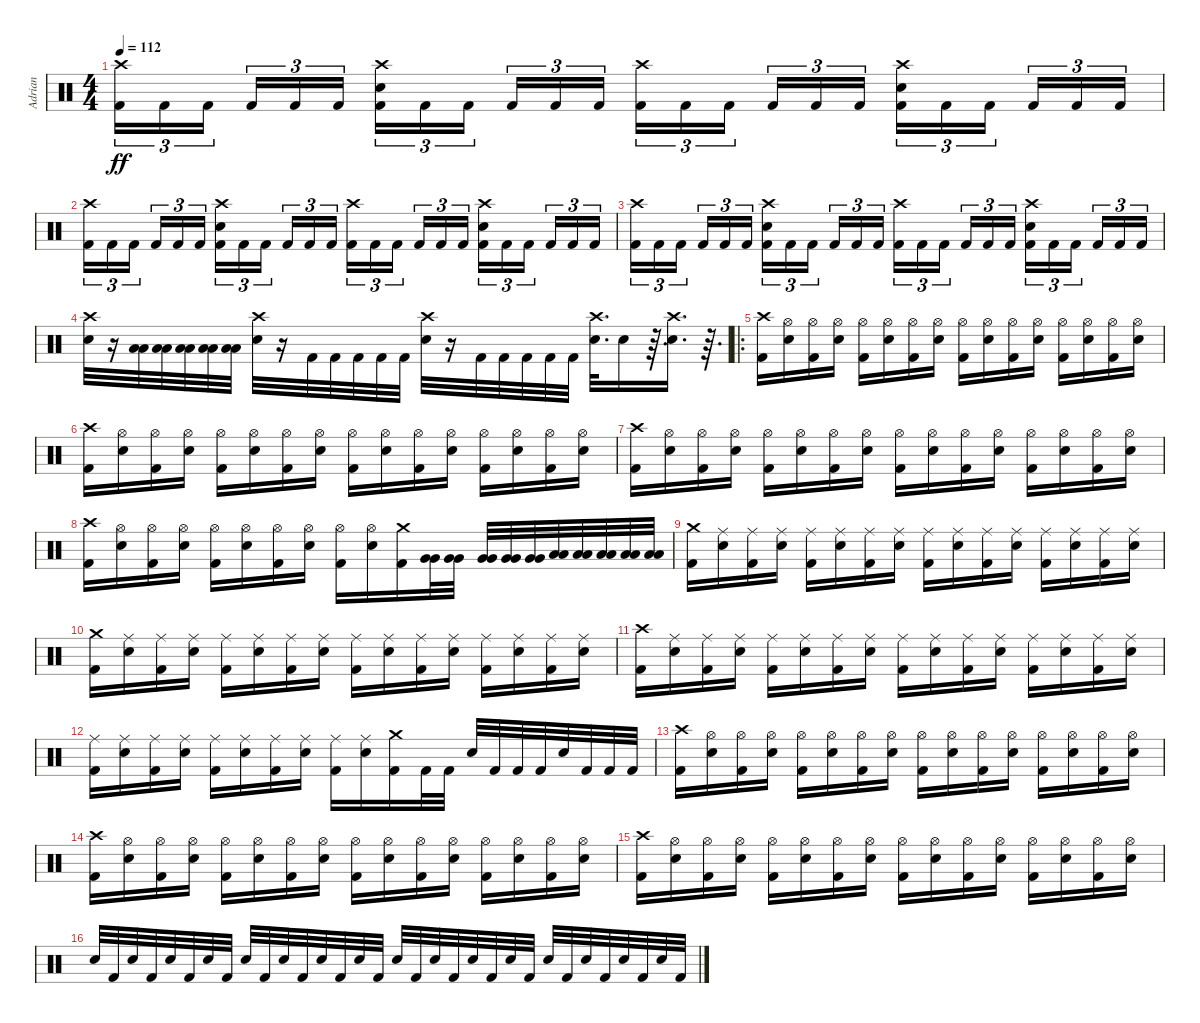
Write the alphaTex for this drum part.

\track ("Adrian" "Adrian") {instrument percussion}
\staff {score}
\articulation defaults
\ts (4 4)
\tempo 112
\clef neutral
\ks c
("Crash high (hit)" "Kick (hit) 2").16{tu (3 2) dy ff} "Kick (hit) 2".16{tu (3 2)} "Kick (hit) 2".16{tu (3 2) beam splitsecondary} "Kick (hit) 2".16{tu (3 2)} "Kick (hit) 2".16{tu (3 2)} "Kick (hit) 2".16{tu (3 2)} ("Crash high (hit)" "Electric Snare (hit)" "Kick (hit) 2").16{tu (3 2)} "Kick (hit) 2".16{tu (3 2)} "Kick (hit) 2".16{tu (3 2) beam splitsecondary} "Kick (hit) 2".16{tu (3 2)} "Kick (hit) 2".16{tu (3 2)} "Kick (hit) 2".16{tu (3 2)} ("Crash high (hit)" "Kick (hit) 2").16{tu (3 2)} "Kick (hit) 2".16{tu (3 2)} "Kick (hit) 2".16{tu (3 2) beam splitsecondary} "Kick (hit) 2".16{tu (3 2)} "Kick (hit) 2".16{tu (3 2)} "Kick (hit) 2".16{tu (3 2)} ("Crash high (hit)" "Electric Snare (hit)" "Kick (hit) 2").16{tu (3 2)} "Kick (hit) 2".16{tu (3 2)} "Kick (hit) 2".16{tu (3 2) beam splitsecondary} "Kick (hit) 2".16{tu (3 2)} "Kick (hit) 2".16{tu (3 2)} "Kick (hit) 2".16{tu (3 2)} |
("Crash high (hit)" "Kick (hit) 2").16{tu (3 2)} "Kick (hit) 2".16{tu (3 2)} "Kick (hit) 2".16{tu (3 2) beam splitsecondary} "Kick (hit) 2".16{tu (3 2)} "Kick (hit) 2".16{tu (3 2)} "Kick (hit) 2".16{tu (3 2)} ("Crash high (hit)" "Electric Snare (hit)" "Kick (hit) 2").16{tu (3 2)} "Kick (hit) 2".16{tu (3 2)} "Kick (hit) 2".16{tu (3 2) beam splitsecondary} "Kick (hit) 2".16{tu (3 2)} "Kick (hit) 2".16{tu (3 2)} "Kick (hit) 2".16{tu (3 2)} ("Crash high (hit)" "Kick (hit) 2").16{tu (3 2)} "Kick (hit) 2".16{tu (3 2)} "Kick (hit) 2".16{tu (3 2) beam splitsecondary} "Kick (hit) 2".16{tu (3 2)} "Kick (hit) 2".16{tu (3 2)} "Kick (hit) 2".16{tu (3 2)} ("Crash high (hit)" "Electric Snare (hit)" "Kick (hit) 2").16{tu (3 2)} "Kick (hit) 2".16{tu (3 2)} "Kick (hit) 2".16{tu (3 2) beam splitsecondary} "Kick (hit) 2".16{tu (3 2)} "Kick (hit) 2".16{tu (3 2)} "Kick (hit) 2".16{tu (3 2)} |
("Crash high (hit)" "Kick (hit) 2").16{tu (3 2)} "Kick (hit) 2".16{tu (3 2)} "Kick (hit) 2".16{tu (3 2) beam splitsecondary} "Kick (hit) 2".16{tu (3 2)} "Kick (hit) 2".16{tu (3 2)} "Kick (hit) 2".16{tu (3 2)} ("Crash high (hit)" "Electric Snare (hit)" "Kick (hit) 2").16{tu (3 2)} "Kick (hit) 2".16{tu (3 2)} "Kick (hit) 2".16{tu (3 2) beam splitsecondary} "Kick (hit) 2".16{tu (3 2)} "Kick (hit) 2".16{tu (3 2)} "Kick (hit) 2".16{tu (3 2)} ("Crash high (hit)" "Kick (hit) 2").16{tu (3 2)} "Kick (hit) 2".16{tu (3 2)} "Kick (hit) 2".16{tu (3 2) beam splitsecondary} "Kick (hit) 2".16{tu (3 2)} "Kick (hit) 2".16{tu (3 2)} "Kick (hit) 2".16{tu (3 2)} ("Crash high (hit)" "Electric Snare (hit)" "Kick (hit) 2").16{tu (3 2)} "Kick (hit) 2".16{tu (3 2)} "Kick (hit) 2".16{tu (3 2) beam splitsecondary} "Kick (hit) 2".16{tu (3 2)} "Kick (hit) 2".16{tu (3 2)} "Kick (hit) 2".16{tu (3 2)} |
("Crash high (hit)" "Electric Snare (hit)").32 r.16 ("Low Floor Tom (hit)" "Low Floor Tom (hit)").32 ("Low Floor Tom (hit)" "Low Floor Tom (hit)").32 ("Low Floor Tom (hit)" "Low Floor Tom (hit)").32 ("Low Floor Tom (hit)" "Low Floor Tom (hit)").32 ("Low Floor Tom (hit)" "Low Floor Tom (hit)").32 ("Crash high (hit)" "Electric Snare (hit)").32 r.16 "Kick (hit) 2".32 "Kick (hit) 2".32 "Kick (hit) 2".32 "Kick (hit) 2".32 "Kick (hit) 2".32 ("Crash high (hit)" "Electric Snare (hit)").32 r.16 "Kick (hit) 2".32 "Kick (hit) 2".32 "Kick (hit) 2".32 "Kick (hit) 2".32 "Kick (hit) 2".32 ("Crash high (hit)" "Electric Snare (hit)").32{d} "Electric Snare (hit)".16 r.64{d} ("Crash high (hit)" "Electric Snare (hit)").16{d} r.64{d} |
\ro
("Crash high (hit)" "Kick (hit) 2").16 ("Hi-Hat (open)" "Electric Snare (hit)").16 ("Hi-Hat (open)" "Kick (hit) 2").16 ("Hi-Hat (open)" "Electric Snare (hit)").16 ("Hi-Hat (open)" "Kick (hit) 2").16 ("Hi-Hat (open)" "Electric Snare (hit)").16 ("Hi-Hat (open)" "Kick (hit) 2").16 ("Hi-Hat (open)" "Electric Snare (hit)").16 ("Hi-Hat (open)" "Kick (hit) 2").16 ("Hi-Hat (open)" "Electric Snare (hit)").16 ("Hi-Hat (open)" "Kick (hit) 2").16 ("Hi-Hat (open)" "Electric Snare (hit)").16 ("Hi-Hat (open)" "Kick (hit) 2").16 ("Hi-Hat (open)" "Electric Snare (hit)").16 ("Hi-Hat (open)" "Kick (hit) 2").16 ("Hi-Hat (open)" "Electric Snare (hit)").16 |
("Crash high (hit)" "Kick (hit) 2").16 ("Hi-Hat (open)" "Electric Snare (hit)").16 ("Hi-Hat (open)" "Kick (hit) 2").16 ("Hi-Hat (open)" "Electric Snare (hit)").16 ("Hi-Hat (open)" "Kick (hit) 2").16 ("Hi-Hat (open)" "Electric Snare (hit)").16 ("Hi-Hat (open)" "Kick (hit) 2").16 ("Hi-Hat (open)" "Electric Snare (hit)").16 ("Hi-Hat (open)" "Kick (hit) 2").16 ("Hi-Hat (open)" "Electric Snare (hit)").16 ("Hi-Hat (open)" "Kick (hit) 2").16 ("Hi-Hat (open)" "Electric Snare (hit)").16 ("Hi-Hat (open)" "Kick (hit) 2").16 ("Hi-Hat (open)" "Electric Snare (hit)").16 ("Hi-Hat (open)" "Kick (hit) 2").16 ("Hi-Hat (open)" "Electric Snare (hit)").16 |
("Crash high (hit)" "Kick (hit) 2").16 ("Hi-Hat (open)" "Electric Snare (hit)").16 ("Hi-Hat (open)" "Kick (hit) 2").16 ("Hi-Hat (open)" "Electric Snare (hit)").16 ("Hi-Hat (open)" "Kick (hit) 2").16 ("Hi-Hat (open)" "Electric Snare (hit)").16 ("Hi-Hat (open)" "Kick (hit) 2").16 ("Hi-Hat (open)" "Electric Snare (hit)").16 ("Hi-Hat (open)" "Kick (hit) 2").16 ("Hi-Hat (open)" "Electric Snare (hit)").16 ("Hi-Hat (open)" "Kick (hit) 2").16 ("Hi-Hat (open)" "Electric Snare (hit)").16 ("Hi-Hat (open)" "Kick (hit) 2").16 ("Hi-Hat (open)" "Electric Snare (hit)").16 ("Hi-Hat (open)" "Kick (hit) 2").16 ("Hi-Hat (open)" "Electric Snare (hit)").16 |
("Crash high (hit)" "Kick (hit) 2").16 ("Hi-Hat (open)" "Electric Snare (hit)").16 ("Hi-Hat (open)" "Kick (hit) 2").16 ("Hi-Hat (open)" "Electric Snare (hit)").16 ("Hi-Hat (open)" "Kick (hit) 2").16 ("Hi-Hat (open)" "Electric Snare (hit)").16 ("Hi-Hat (open)" "Kick (hit) 2").16 ("Hi-Hat (open)" "Electric Snare (hit)").16 ("Hi-Hat (open)" "Kick (hit) 2").16 ("Hi-Hat (open)" "Electric Snare (hit)").16 ("Crash medium (hit)" "Kick (hit) 2").16 ("Very Low Tom (hit)" "Very Low Tom (hit)").32 ("Very Low Tom (hit)" "Very Low Tom (hit)").32 ("Very Low Tom (hit)" "Very Low Tom (hit)").32 ("Very Low Tom (hit)" "Very Low Tom (hit)").32 ("Very Low Tom (hit)" "Very Low Tom (hit)").32 ("Low Floor Tom (hit)" "Low Floor Tom (hit)").32 ("Low Floor Tom (hit)" "Low Floor Tom (hit)").32 ("Low Floor Tom (hit)" "Low Floor Tom (hit)").32 ("Low Floor Tom (hit)" "Low Floor Tom (hit)").32 ("Low Floor Tom (hit)" "Low Floor Tom (hit)").32 |
("Crash medium (hit)" "Kick (hit) 2").16 ("Ride (middle)" "Electric Snare (hit)").16 ("Ride (middle)" "Kick (hit) 2").16 ("Ride (middle)" "Electric Snare (hit)").16 ("Ride (middle)" "Kick (hit) 2").16 ("Ride (middle)" "Electric Snare (hit)").16 ("Ride (middle)" "Kick (hit) 2").16 ("Ride (middle)" "Electric Snare (hit)").16 ("Ride (middle)" "Kick (hit) 2").16 ("Ride (middle)" "Electric Snare (hit)").16 ("Ride (middle)" "Kick (hit) 2").16 ("Ride (middle)" "Electric Snare (hit)").16 ("Ride (middle)" "Kick (hit) 2").16 ("Ride (middle)" "Electric Snare (hit)").16 ("Ride (middle)" "Kick (hit) 2").16 ("Ride (middle)" "Electric Snare (hit)").16 |
("Crash medium (hit)" "Kick (hit) 2").16 ("Ride (middle)" "Electric Snare (hit)").16 ("Ride (middle)" "Kick (hit) 2").16 ("Ride (middle)" "Electric Snare (hit)").16 ("Ride (middle)" "Kick (hit) 2").16 ("Ride (middle)" "Electric Snare (hit)").16 ("Ride (middle)" "Kick (hit) 2").16 ("Ride (middle)" "Electric Snare (hit)").16 ("Ride (middle)" "Kick (hit) 2").16 ("Ride (middle)" "Electric Snare (hit)").16 ("Ride (middle)" "Kick (hit) 2").16 ("Ride (middle)" "Electric Snare (hit)").16 ("Ride (middle)" "Kick (hit) 2").16 ("Ride (middle)" "Electric Snare (hit)").16 ("Ride (middle)" "Kick (hit) 2").16 ("Ride (middle)" "Electric Snare (hit)").16 |
("Crash high (hit)" "Kick (hit) 2").16 ("Ride (middle)" "Electric Snare (hit)").16 ("Ride (middle)" "Kick (hit) 2").16 ("Ride (middle)" "Electric Snare (hit)").16 ("Ride (middle)" "Kick (hit) 2").16 ("Ride (middle)" "Electric Snare (hit)").16 ("Ride (middle)" "Kick (hit) 2").16 ("Ride (middle)" "Electric Snare (hit)").16 ("Ride (middle)" "Kick (hit) 2").16 ("Ride (middle)" "Electric Snare (hit)").16 ("Ride (middle)" "Kick (hit) 2").16 ("Ride (middle)" "Electric Snare (hit)").16 ("Ride (middle)" "Kick (hit) 2").16 ("Ride (middle)" "Electric Snare (hit)").16 ("Ride (middle)" "Kick (hit) 2").16 ("Ride (middle)" "Electric Snare (hit)").16 |
("Ride (middle)" "Kick (hit) 2").16 ("Ride (middle)" "Electric Snare (hit)").16 ("Ride (middle)" "Kick (hit) 2").16 ("Ride (middle)" "Electric Snare (hit)").16 ("Ride (middle)" "Kick (hit) 2").16 ("Ride (middle)" "Electric Snare (hit)").16 ("Ride (middle)" "Kick (hit) 2").16 ("Ride (middle)" "Electric Snare (hit)").16 ("Ride (middle)" "Kick (hit) 2").16 ("Ride (middle)" "Electric Snare (hit)").16 ("Crash medium (hit)" "Kick (hit) 2").16 "Kick (hit) 2".32 "Kick (hit) 2".32 "Electric Snare (hit)".32 "Kick (hit) 2".32 "Kick (hit) 2".32 "Kick (hit) 2".32 "Electric Snare (hit)".32 "Kick (hit) 2".32 "Kick (hit) 2".32 "Kick (hit) 2".32 |
("Crash high (hit)" "Kick (hit) 2").16 ("Hi-Hat (open)" "Electric Snare (hit)").16 ("Hi-Hat (open)" "Kick (hit) 2").16 ("Hi-Hat (open)" "Electric Snare (hit)").16 ("Hi-Hat (open)" "Kick (hit) 2").16 ("Hi-Hat (open)" "Electric Snare (hit)").16 ("Hi-Hat (open)" "Kick (hit) 2").16 ("Hi-Hat (open)" "Electric Snare (hit)").16 ("Hi-Hat (open)" "Kick (hit) 2").16 ("Hi-Hat (open)" "Electric Snare (hit)").16 ("Hi-Hat (open)" "Kick (hit) 2").16 ("Hi-Hat (open)" "Electric Snare (hit)").16 ("Hi-Hat (open)" "Kick (hit) 2").16 ("Hi-Hat (open)" "Electric Snare (hit)").16 ("Hi-Hat (open)" "Kick (hit) 2").16 ("Hi-Hat (open)" "Electric Snare (hit)").16 |
("Crash high (hit)" "Kick (hit) 2").16 ("Hi-Hat (open)" "Electric Snare (hit)").16 ("Hi-Hat (open)" "Kick (hit) 2").16 ("Hi-Hat (open)" "Electric Snare (hit)").16 ("Hi-Hat (open)" "Kick (hit) 2").16 ("Hi-Hat (open)" "Electric Snare (hit)").16 ("Hi-Hat (open)" "Kick (hit) 2").16 ("Hi-Hat (open)" "Electric Snare (hit)").16 ("Hi-Hat (open)" "Kick (hit) 2").16 ("Hi-Hat (open)" "Electric Snare (hit)").16 ("Hi-Hat (open)" "Kick (hit) 2").16 ("Hi-Hat (open)" "Electric Snare (hit)").16 ("Hi-Hat (open)" "Kick (hit) 2").16 ("Hi-Hat (open)" "Electric Snare (hit)").16 ("Hi-Hat (open)" "Kick (hit) 2").16 ("Hi-Hat (open)" "Electric Snare (hit)").16 |
("Crash high (hit)" "Kick (hit) 2").16 ("Hi-Hat (open)" "Electric Snare (hit)").16 ("Hi-Hat (open)" "Kick (hit) 2").16 ("Hi-Hat (open)" "Electric Snare (hit)").16 ("Hi-Hat (open)" "Kick (hit) 2").16 ("Hi-Hat (open)" "Electric Snare (hit)").16 ("Hi-Hat (open)" "Kick (hit) 2").16 ("Hi-Hat (open)" "Electric Snare (hit)").16 ("Hi-Hat (open)" "Kick (hit) 2").16 ("Hi-Hat (open)" "Electric Snare (hit)").16 ("Hi-Hat (open)" "Kick (hit) 2").16 ("Hi-Hat (open)" "Electric Snare (hit)").16 ("Hi-Hat (open)" "Kick (hit) 2").16 ("Hi-Hat (open)" "Electric Snare (hit)").16 ("Hi-Hat (open)" "Kick (hit) 2").16 ("Hi-Hat (open)" "Electric Snare (hit)").16 |
"Electric Snare (hit)".32 "Kick (hit) 2".32 "Electric Snare (hit)".32 "Kick (hit) 2".32 "Electric Snare (hit)".32 "Kick (hit) 2".32 "Electric Snare (hit)".32 "Kick (hit) 2".32 "Electric Snare (hit)".32 "Kick (hit) 2".32 "Electric Snare (hit)".32 "Kick (hit) 2".32 "Electric Snare (hit)".32 "Kick (hit) 2".32 "Electric Snare (hit)".32 "Kick (hit) 2".32 "Electric Snare (hit)".32 "Kick (hit) 2".32 "Electric Snare (hit)".32 "Kick (hit) 2".32 "Electric Snare (hit)".32 "Kick (hit) 2".32 "Electric Snare (hit)".32 "Kick (hit) 2".32 "Electric Snare (hit)".32 "Kick (hit) 2".32 "Electric Snare (hit)".32 "Kick (hit) 2".32 "Electric Snare (hit)".32 "Kick (hit) 2".32 "Electric Snare (hit)".32 "Kick (hit) 2".32
